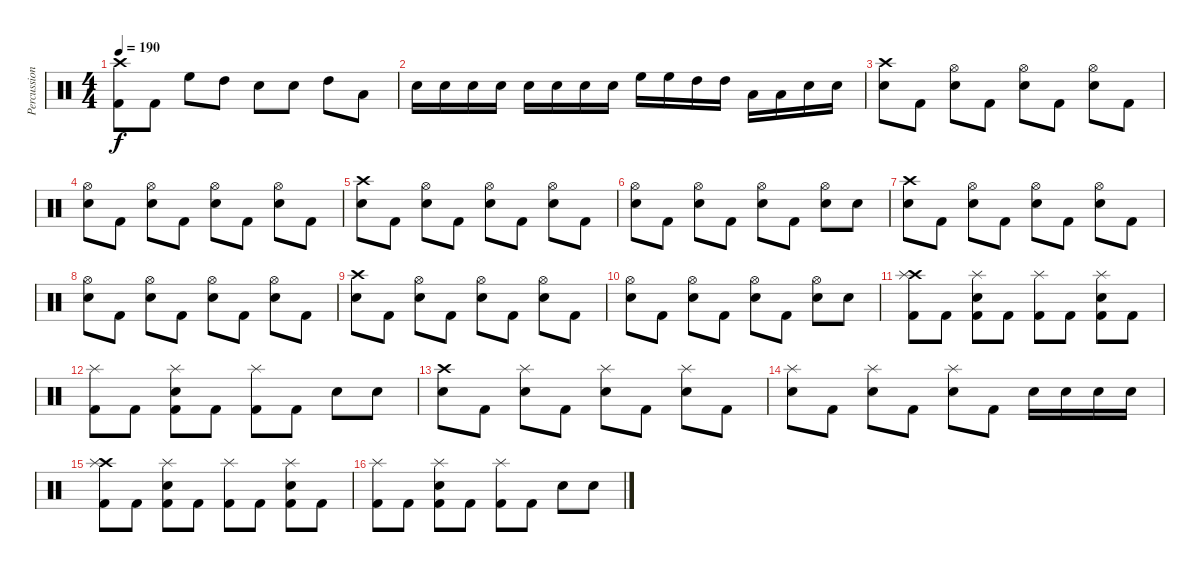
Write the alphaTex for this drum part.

\track ("Percussion" "Percussion") {instrument percussion}
\staff {score}
\articulation defaults
\ts (4 4)
\tempo 190
\clef neutral
\ks c
("Crash high (hit)" "Kick (hit) 2").8{dy f} "Kick (hit) 2".8 "High Floor Tom (hit)".8 "High Tom (hit)".8 "Snare (hit) 2".8 "Snare (hit) 2".8 "High Tom (hit)".8 "Low Tom (hit)".8 |
"Snare (hit) 2".16 "Snare (hit) 2".16 "Snare (hit) 2".16 "Snare (hit) 2".16 "Snare (hit) 2".16 "Snare (hit) 2".16 "Snare (hit) 2".16 "Snare (hit) 2".16 "High Floor Tom (hit)".16 "High Floor Tom (hit)".16 "High Tom (hit)".16 "High Tom (hit)".16 "Low Tom (hit)".16 "Low Tom (hit)".16 "Snare (hit) 2".16 "Snare (hit) 2".16 |
("Crash high (hit)" "Snare (hit) 2").8 "Kick (hit) 2".8 ("Hi-Hat (open)" "Snare (hit) 2").8 "Kick (hit) 2".8 ("Hi-Hat (open)" "Snare (hit) 2").8 "Kick (hit) 2".8 ("Hi-Hat (open)" "Snare (hit) 2").8 "Kick (hit) 2".8 |
("Hi-Hat (open)" "Snare (hit) 2").8 "Kick (hit) 2".8 ("Hi-Hat (open)" "Snare (hit) 2").8 "Kick (hit) 2".8 ("Hi-Hat (open)" "Snare (hit) 2").8 "Kick (hit) 2".8 ("Hi-Hat (open)" "Snare (hit) 2").8 "Kick (hit) 2".8 |
("Crash high (hit)" "Snare (hit) 2").8 "Kick (hit) 2".8 ("Hi-Hat (open)" "Snare (hit) 2").8 "Kick (hit) 2".8 ("Hi-Hat (open)" "Snare (hit) 2").8 "Kick (hit) 2".8 ("Hi-Hat (open)" "Snare (hit) 2").8 "Kick (hit) 2".8 |
("Hi-Hat (open)" "Snare (hit) 2").8 "Kick (hit) 2".8 ("Hi-Hat (open)" "Snare (hit) 2").8 "Kick (hit) 2".8 ("Hi-Hat (open)" "Snare (hit) 2").8 "Kick (hit) 2".8 ("Hi-Hat (open)" "Snare (hit) 2").8 "Snare (hit) 2".8 |
("Crash high (hit)" "Snare (hit) 2").8 "Kick (hit) 2".8 ("Hi-Hat (open)" "Snare (hit) 2").8 "Kick (hit) 2".8 ("Hi-Hat (open)" "Snare (hit) 2").8 "Kick (hit) 2".8 ("Hi-Hat (open)" "Snare (hit) 2").8 "Kick (hit) 2".8 |
("Hi-Hat (open)" "Snare (hit) 2").8 "Kick (hit) 2".8 ("Hi-Hat (open)" "Snare (hit) 2").8 "Kick (hit) 2".8 ("Hi-Hat (open)" "Snare (hit) 2").8 "Kick (hit) 2".8 ("Hi-Hat (open)" "Snare (hit) 2").8 "Kick (hit) 2".8 |
("Crash high (hit)" "Snare (hit) 2").8 "Kick (hit) 2".8 ("Hi-Hat (open)" "Snare (hit) 2").8 "Kick (hit) 2".8 ("Hi-Hat (open)" "Snare (hit) 2").8 "Kick (hit) 2".8 ("Hi-Hat (open)" "Snare (hit) 2").8 "Kick (hit) 2".8 |
("Hi-Hat (open)" "Snare (hit) 2").8 "Kick (hit) 2".8 ("Hi-Hat (open)" "Snare (hit) 2").8 "Kick (hit) 2".8 ("Hi-Hat (open)" "Snare (hit) 2").8 "Kick (hit) 2".8 ("Hi-Hat (open)" "Snare (hit) 2").8 "Snare (hit) 2".8 |
("Crash high (hit)" "Splash (hit)" "Kick (hit) 2").8 "Kick (hit) 2".8 ("Splash (hit)" "Snare (hit) 2" "Kick (hit) 2").8 "Kick (hit) 2".8 ("Splash (hit)" "Kick (hit) 2").8 "Kick (hit) 2".8 ("Splash (hit)" "Snare (hit) 2" "Kick (hit) 2").8 "Kick (hit) 2".8 |
("Splash (hit)" "Kick (hit) 2").8 "Kick (hit) 2".8 ("Splash (hit)" "Snare (hit) 2" "Kick (hit) 2").8 "Kick (hit) 2".8 ("Splash (hit)" "Kick (hit) 2").8 "Kick (hit) 2".8 "Snare (hit) 2".8 "Snare (hit) 2".8 |
("Crash high (hit)" "Snare (hit) 2").8 "Kick (hit) 2".8 ("Splash (hit)" "Snare (hit) 2").8 "Kick (hit) 2".8 ("Splash (hit)" "Snare (hit) 2").8 "Kick (hit) 2".8 ("Splash (hit)" "Snare (hit) 2").8 "Kick (hit) 2".8 |
("Splash (hit)" "Snare (hit) 2").8 "Kick (hit) 2".8 ("Splash (hit)" "Snare (hit) 2").8 "Kick (hit) 2".8 ("Splash (hit)" "Snare (hit) 2").8 "Kick (hit) 2".8 "Snare (hit) 2".16 "Snare (hit) 2".16 "Snare (hit) 2".16 "Snare (hit) 2".16 |
("Crash high (hit)" "Splash (hit)" "Kick (hit) 2").8 "Kick (hit) 2".8 ("Splash (hit)" "Snare (hit) 2" "Kick (hit) 2").8 "Kick (hit) 2".8 ("Splash (hit)" "Kick (hit) 2").8 "Kick (hit) 2".8 ("Splash (hit)" "Snare (hit) 2" "Kick (hit) 2").8 "Kick (hit) 2".8 |
("Splash (hit)" "Kick (hit) 2").8 "Kick (hit) 2".8 ("Splash (hit)" "Snare (hit) 2" "Kick (hit) 2").8 "Kick (hit) 2".8 ("Splash (hit)" "Kick (hit) 2").8 "Kick (hit) 2".8 "Snare (hit) 2".8 "Snare (hit) 2".8
